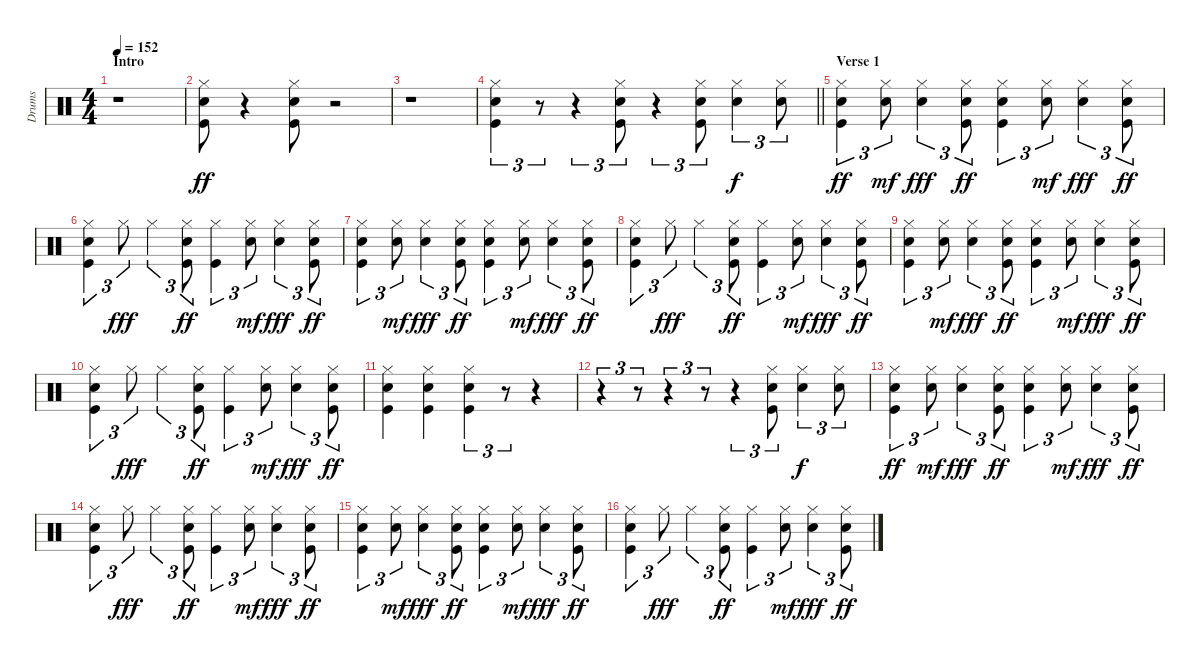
\track ("Drums" "Drums") {instrument percussion}
\staff {score}
\articulation defaults
\ts (4 4)
\section ("" "Intro")
\tempo 152
\clef neutral
\ks c
r.1{dy ff} |
("Hi-Hat (closed)" "Snare (hit) 2" "Kick (hit)").8 r.4 ("Hi-Hat (closed)" "Snare (hit) 2" "Kick (hit)").8 r.2 |
r.1 |
\barLineRight lightlight
("Hi-Hat (closed)" "Snare (hit) 2" "Kick (hit)").4{tu (3 2)} r.8{tu (3 2)} r.4{tu (3 2)} ("Hi-Hat (closed)" "Snare (hit) 2" "Kick (hit)").8{tu (3 2)} r.4{tu (3 2)} ("Hi-Hat (closed)" "Snare (hit) 2" "Kick (hit)").8{tu (3 2)} ("Hi-Hat (closed)" "Snare (hit) 2").4{tu (3 2) dy f} ("Hi-Hat (closed)" "Snare (hit) 2").8{tu (3 2)} |
\section ("" "Verse 1")
("Hi-Hat (closed)" "Snare (hit) 2" "Kick (hit)").4{tu (3 2) dy ff} ("Hi-Hat (closed)" "Snare (hit) 2").8{tu (3 2) dy mf} ("Hi-Hat (closed)" "Snare (hit) 2").4{tu (3 2) dy fff} ("Hi-Hat (closed)" "Snare (hit) 2" "Kick (hit)").8{tu (3 2) dy ff} ("Hi-Hat (closed)" "Snare (hit) 2" "Kick (hit)").4{tu (3 2)} ("Hi-Hat (closed)" "Snare (hit) 2").8{tu (3 2) dy mf} ("Hi-Hat (closed)" "Snare (hit) 2").4{tu (3 2) dy fff} ("Hi-Hat (closed)" "Snare (hit) 2" "Kick (hit)").8{tu (3 2) dy ff} |
("Hi-Hat (closed)" "Snare (hit) 2" "Kick (hit)").4{tu (3 2)} "Hi-Hat (closed)".8{tu (3 2) dy fff} "Hi-Hat (closed)".4{tu (3 2)} ("Hi-Hat (closed)" "Snare (hit) 2" "Kick (hit)").8{tu (3 2) dy ff} ("Hi-Hat (closed)" "Kick (hit)").4{tu (3 2)} ("Hi-Hat (closed)" "Snare (hit) 2").8{tu (3 2) dy mf} ("Hi-Hat (closed)" "Snare (hit) 2").4{tu (3 2) dy fff} ("Hi-Hat (closed)" "Snare (hit) 2" "Kick (hit)").8{tu (3 2) dy ff} |
("Hi-Hat (closed)" "Snare (hit) 2" "Kick (hit)").4{tu (3 2)} ("Hi-Hat (closed)" "Snare (hit) 2").8{tu (3 2) dy mf} ("Hi-Hat (closed)" "Snare (hit) 2").4{tu (3 2) dy fff} ("Hi-Hat (closed)" "Snare (hit) 2" "Kick (hit)").8{tu (3 2) dy ff} ("Hi-Hat (closed)" "Snare (hit) 2" "Kick (hit)").4{tu (3 2)} ("Hi-Hat (closed)" "Snare (hit) 2").8{tu (3 2) dy mf} ("Hi-Hat (closed)" "Snare (hit) 2").4{tu (3 2) dy fff} ("Hi-Hat (closed)" "Snare (hit) 2" "Kick (hit)").8{tu (3 2) dy ff} |
("Hi-Hat (closed)" "Snare (hit) 2" "Kick (hit)").4{tu (3 2)} "Hi-Hat (closed)".8{tu (3 2) dy fff} "Hi-Hat (closed)".4{tu (3 2)} ("Hi-Hat (closed)" "Snare (hit) 2" "Kick (hit)").8{tu (3 2) dy ff} ("Hi-Hat (closed)" "Kick (hit)").4{tu (3 2)} ("Hi-Hat (closed)" "Snare (hit) 2").8{tu (3 2) dy mf} ("Hi-Hat (closed)" "Snare (hit) 2").4{tu (3 2) dy fff} ("Hi-Hat (closed)" "Snare (hit) 2" "Kick (hit)").8{tu (3 2) dy ff} |
("Hi-Hat (closed)" "Snare (hit) 2" "Kick (hit)").4{tu (3 2)} ("Hi-Hat (closed)" "Snare (hit) 2").8{tu (3 2) dy mf} ("Hi-Hat (closed)" "Snare (hit) 2").4{tu (3 2) dy fff} ("Hi-Hat (closed)" "Snare (hit) 2" "Kick (hit)").8{tu (3 2) dy ff} ("Hi-Hat (closed)" "Snare (hit) 2" "Kick (hit)").4{tu (3 2)} ("Hi-Hat (closed)" "Snare (hit) 2").8{tu (3 2) dy mf} ("Hi-Hat (closed)" "Snare (hit) 2").4{tu (3 2) dy fff} ("Hi-Hat (closed)" "Snare (hit) 2" "Kick (hit)").8{tu (3 2) dy ff} |
("Hi-Hat (closed)" "Snare (hit) 2" "Kick (hit)").4{tu (3 2)} "Hi-Hat (closed)".8{tu (3 2) dy fff} "Hi-Hat (closed)".4{tu (3 2)} ("Hi-Hat (closed)" "Snare (hit) 2" "Kick (hit)").8{tu (3 2) dy ff} ("Hi-Hat (closed)" "Kick (hit)").4{tu (3 2)} ("Hi-Hat (closed)" "Snare (hit) 2").8{tu (3 2) dy mf} ("Hi-Hat (closed)" "Snare (hit) 2").4{tu (3 2) dy fff} ("Hi-Hat (closed)" "Snare (hit) 2" "Kick (hit)").8{tu (3 2) dy ff} |
("Hi-Hat (closed)" "Snare (hit) 2" "Kick (hit)").4 ("Hi-Hat (closed)" "Snare (hit) 2" "Kick (hit)").4 ("Hi-Hat (closed)" "Snare (hit) 2" "Kick (hit)").4{tu (3 2)} r.8{tu (3 2)} r.4 |
r.4{tu (3 2)} r.8{tu (3 2)} r.4{tu (3 2)} r.8{tu (3 2)} r.4{tu (3 2)} ("Hi-Hat (closed)" "Snare (hit) 2" "Kick (hit)").8{tu (3 2)} ("Hi-Hat (closed)" "Snare (hit) 2").4{tu (3 2) dy f} ("Hi-Hat (closed)" "Snare (hit) 2").8{tu (3 2)} |
("Hi-Hat (closed)" "Snare (hit) 2" "Kick (hit)").4{tu (3 2) dy ff} ("Hi-Hat (closed)" "Snare (hit) 2").8{tu (3 2) dy mf} ("Hi-Hat (closed)" "Snare (hit) 2").4{tu (3 2) dy fff} ("Hi-Hat (closed)" "Snare (hit) 2" "Kick (hit)").8{tu (3 2) dy ff} ("Hi-Hat (closed)" "Snare (hit) 2" "Kick (hit)").4{tu (3 2)} ("Hi-Hat (closed)" "Snare (hit) 2").8{tu (3 2) dy mf} ("Hi-Hat (closed)" "Snare (hit) 2").4{tu (3 2) dy fff} ("Hi-Hat (closed)" "Snare (hit) 2" "Kick (hit)").8{tu (3 2) dy ff} |
("Hi-Hat (closed)" "Snare (hit) 2" "Kick (hit)").4{tu (3 2)} "Hi-Hat (closed)".8{tu (3 2) dy fff} "Hi-Hat (closed)".4{tu (3 2)} ("Hi-Hat (closed)" "Snare (hit) 2" "Kick (hit)").8{tu (3 2) dy ff} ("Hi-Hat (closed)" "Kick (hit)").4{tu (3 2)} ("Hi-Hat (closed)" "Snare (hit) 2").8{tu (3 2) dy mf} ("Hi-Hat (closed)" "Snare (hit) 2").4{tu (3 2) dy fff} ("Hi-Hat (closed)" "Snare (hit) 2" "Kick (hit)").8{tu (3 2) dy ff} |
("Hi-Hat (closed)" "Snare (hit) 2" "Kick (hit)").4{tu (3 2)} ("Hi-Hat (closed)" "Snare (hit) 2").8{tu (3 2) dy mf} ("Hi-Hat (closed)" "Snare (hit) 2").4{tu (3 2) dy fff} ("Hi-Hat (closed)" "Snare (hit) 2" "Kick (hit)").8{tu (3 2) dy ff} ("Hi-Hat (closed)" "Snare (hit) 2" "Kick (hit)").4{tu (3 2)} ("Hi-Hat (closed)" "Snare (hit) 2").8{tu (3 2) dy mf} ("Hi-Hat (closed)" "Snare (hit) 2").4{tu (3 2) dy fff} ("Hi-Hat (closed)" "Snare (hit) 2" "Kick (hit)").8{tu (3 2) dy ff} |
("Hi-Hat (closed)" "Snare (hit) 2" "Kick (hit)").4{tu (3 2)} "Hi-Hat (closed)".8{tu (3 2) dy fff} "Hi-Hat (closed)".4{tu (3 2)} ("Hi-Hat (closed)" "Snare (hit) 2" "Kick (hit)").8{tu (3 2) dy ff} ("Hi-Hat (closed)" "Kick (hit)").4{tu (3 2)} ("Hi-Hat (closed)" "Snare (hit) 2").8{tu (3 2) dy mf} ("Hi-Hat (closed)" "Snare (hit) 2").4{tu (3 2) dy fff} ("Hi-Hat (closed)" "Snare (hit) 2" "Kick (hit)").8{tu (3 2) dy ff}
